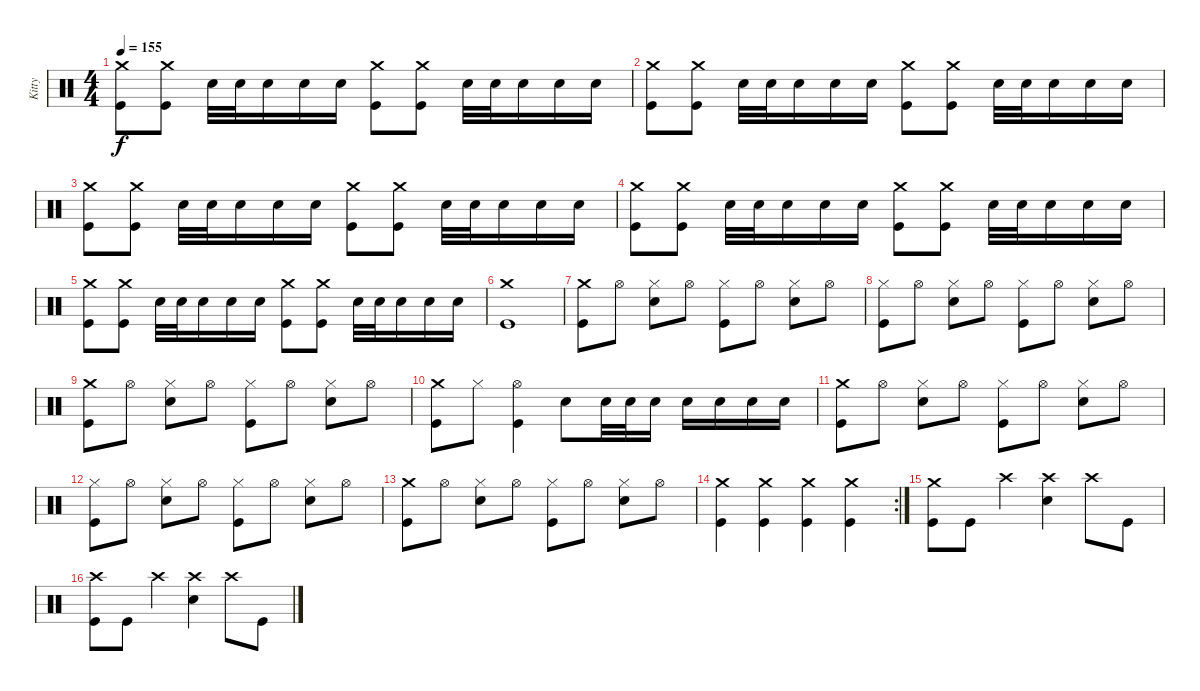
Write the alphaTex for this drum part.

\track ("Kitty" "Kitty") {instrument percussion}
\staff {score}
\articulation defaults
\ts (4 4)
\tempo 155
\clef neutral
\ks c
("Crash medium (hit)" "Kick (hit)").8{dy f} ("Crash medium (hit)" "Kick (hit)").8 "Electric Snare (hit)".32 "Electric Snare (hit)".32 "Electric Snare (hit)".16 "Electric Snare (hit)".16 "Electric Snare (hit)".16 ("Crash medium (hit)" "Kick (hit)").8 ("Crash medium (hit)" "Kick (hit)").8 "Electric Snare (hit)".32 "Electric Snare (hit)".32 "Electric Snare (hit)".16 "Electric Snare (hit)".16 "Electric Snare (hit)".16 |
("Crash medium (hit)" "Kick (hit)").8 ("Crash medium (hit)" "Kick (hit)").8 "Electric Snare (hit)".32 "Electric Snare (hit)".32 "Electric Snare (hit)".16 "Electric Snare (hit)".16 "Electric Snare (hit)".16 ("Crash medium (hit)" "Kick (hit)").8 ("Crash medium (hit)" "Kick (hit)").8 "Electric Snare (hit)".32 "Electric Snare (hit)".32 "Electric Snare (hit)".16 "Electric Snare (hit)".16 "Electric Snare (hit)".16 |
("Crash medium (hit)" "Kick (hit)").8 ("Crash medium (hit)" "Kick (hit)").8 "Electric Snare (hit)".32 "Electric Snare (hit)".32 "Electric Snare (hit)".16 "Electric Snare (hit)".16 "Electric Snare (hit)".16 ("Crash medium (hit)" "Kick (hit)").8 ("Crash medium (hit)" "Kick (hit)").8 "Electric Snare (hit)".32 "Electric Snare (hit)".32 "Electric Snare (hit)".16 "Electric Snare (hit)".16 "Electric Snare (hit)".16 |
("Crash medium (hit)" "Kick (hit)").8 ("Crash medium (hit)" "Kick (hit)").8 "Electric Snare (hit)".32 "Electric Snare (hit)".32 "Electric Snare (hit)".16 "Electric Snare (hit)".16 "Electric Snare (hit)".16 ("Crash medium (hit)" "Kick (hit)").8 ("Crash medium (hit)" "Kick (hit)").8 "Electric Snare (hit)".32 "Electric Snare (hit)".32 "Electric Snare (hit)".16 "Electric Snare (hit)".16 "Electric Snare (hit)".16 |
("Crash medium (hit)" "Kick (hit)").8 ("Crash medium (hit)" "Kick (hit)").8 "Electric Snare (hit)".32 "Electric Snare (hit)".32 "Electric Snare (hit)".16 "Electric Snare (hit)".16 "Electric Snare (hit)".16 ("Crash medium (hit)" "Kick (hit)").8 ("Crash medium (hit)" "Kick (hit)").8 "Electric Snare (hit)".32 "Electric Snare (hit)".32 "Electric Snare (hit)".16 "Electric Snare (hit)".16 "Electric Snare (hit)".16 |
("Crash medium (hit)" "Kick (hit)").1 |
("Crash medium (hit)" "Kick (hit)").8 "Hi-Hat (open)".8 ("Hi-Hat (closed)" "Electric Snare (hit)").8 "Hi-Hat (open)".8 ("Hi-Hat (closed)" "Kick (hit)").8 "Hi-Hat (open)".8 ("Hi-Hat (closed)" "Electric Snare (hit)").8 "Hi-Hat (open)".8 |
("Hi-Hat (closed)" "Kick (hit)").8 "Hi-Hat (open)".8 ("Hi-Hat (closed)" "Electric Snare (hit)").8 "Hi-Hat (open)".8 ("Hi-Hat (closed)" "Kick (hit)").8 "Hi-Hat (open)".8 ("Hi-Hat (closed)" "Electric Snare (hit)").8 "Hi-Hat (open)".8 |
("Crash medium (hit)" "Kick (hit)").8 "Hi-Hat (open)".8 ("Hi-Hat (closed)" "Electric Snare (hit)").8 "Hi-Hat (open)".8 ("Hi-Hat (closed)" "Kick (hit)").8 "Hi-Hat (open)".8 ("Hi-Hat (closed)" "Electric Snare (hit)").8 "Hi-Hat (open)".8 |
("Crash medium (hit)" "Kick (hit)").8 "Hi-Hat (closed)".8 ("Hi-Hat (open)" "Kick (hit)").4 "Electric Snare (hit)".8 "Electric Snare (hit)".32 "Electric Snare (hit)".32 "Electric Snare (hit)".16 "Electric Snare (hit)".16 "Electric Snare (hit)".16 "Electric Snare (hit)".16 "Electric Snare (hit)".16 |
("Crash medium (hit)" "Kick (hit)").8 "Hi-Hat (open)".8 ("Hi-Hat (closed)" "Electric Snare (hit)").8 "Hi-Hat (open)".8 ("Hi-Hat (closed)" "Kick (hit)").8 "Hi-Hat (open)".8 ("Hi-Hat (closed)" "Electric Snare (hit)").8 "Hi-Hat (open)".8 |
("Hi-Hat (closed)" "Kick (hit)").8 "Hi-Hat (open)".8 ("Hi-Hat (closed)" "Electric Snare (hit)").8 "Hi-Hat (open)".8 ("Hi-Hat (closed)" "Kick (hit)").8 "Hi-Hat (open)".8 ("Hi-Hat (closed)" "Electric Snare (hit)").8 "Hi-Hat (open)".8 |
("Crash medium (hit)" "Kick (hit)").8 "Hi-Hat (open)".8 ("Hi-Hat (closed)" "Electric Snare (hit)").8 "Hi-Hat (open)".8 ("Hi-Hat (closed)" "Kick (hit)").8 "Hi-Hat (open)".8 ("Hi-Hat (closed)" "Electric Snare (hit)").8 "Hi-Hat (open)".8 |
\rc 2
("Crash medium (hit)" "Kick (hit)").4 ("Crash medium (hit)" "Kick (hit)").4 ("Crash medium (hit)" "Kick (hit)").4 ("Crash medium (hit)" "Kick (hit)").4 |
("Crash medium (hit)" "Kick (hit)").8 "Kick (hit)".8 "Crash high (hit)".4 ("Crash high (hit)" "Electric Snare (hit)").4 "Crash high (hit)".8 "Kick (hit)".8 |
("Crash high (hit)" "Kick (hit)").8 "Kick (hit)".8 "Crash high (hit)".4 ("Crash high (hit)" "Electric Snare (hit)").4 "Crash high (hit)".8 "Kick (hit)".8
